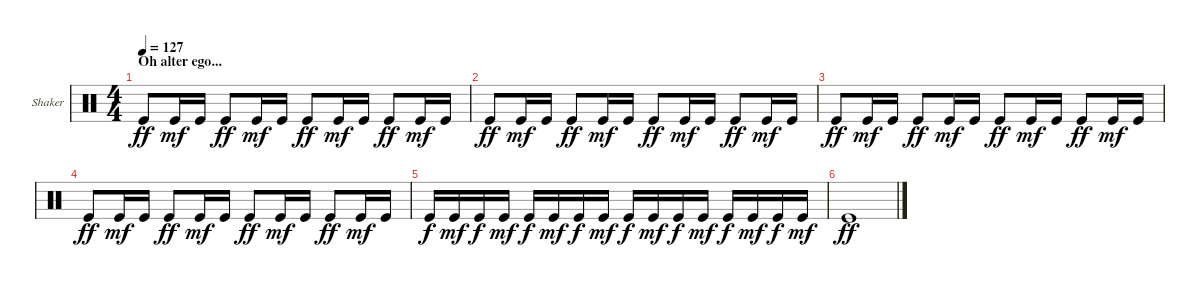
\bracketExtendMode groupsimilarinstruments
\firstSystemTrackNameOrientation horizontal
\otherSystemsTrackNameOrientation horizontal
\track ("Shaker" "Shaker") {instrument percussion}
\staff {score}
\articulation defaults
\ts (4 4)
\section ("" "Oh alter ego...")
\tempo 127
\clef neutral
\ks c "Kick (hit)".8{dy ff} "Kick (hit)".16{dy mf} "Kick (hit)".16 "Kick (hit)".8{dy ff} "Kick (hit)".16{dy mf} "Kick (hit)".16 "Kick (hit)".8{dy ff} "Kick (hit)".16{dy mf} "Kick (hit)".16 "Kick (hit)".8{dy ff} "Kick (hit)".16{dy mf} "Kick (hit)".16
|
"Kick (hit)".8{dy ff} "Kick (hit)".16{dy mf} "Kick (hit)".16 "Kick (hit)".8{dy ff} "Kick (hit)".16{dy mf} "Kick (hit)".16 "Kick (hit)".8{dy ff} "Kick (hit)".16{dy mf} "Kick (hit)".16 "Kick (hit)".8{dy ff} "Kick (hit)".16{dy mf} "Kick (hit)".16 |
"Kick (hit)".8{dy ff} "Kick (hit)".16{dy mf} "Kick (hit)".16 "Kick (hit)".8{dy ff} "Kick (hit)".16{dy mf} "Kick (hit)".16 "Kick (hit)".8{dy ff} "Kick (hit)".16{dy mf} "Kick (hit)".16 "Kick (hit)".8{dy ff} "Kick (hit)".16{dy mf} "Kick (hit)".16 |
"Kick (hit)".8{dy ff} "Kick (hit)".16{dy mf} "Kick (hit)".16 "Kick (hit)".8{dy ff} "Kick (hit)".16{dy mf} "Kick (hit)".16 "Kick (hit)".8{dy ff} "Kick (hit)".16{dy mf} "Kick (hit)".16 "Kick (hit)".8{dy ff} "Kick (hit)".16{dy mf} "Kick (hit)".16 |
"Kick (hit)".16{dy f} "Kick (hit)".16{dy mf} "Kick (hit)".16{dy f} "Kick (hit)".16{dy mf} "Kick (hit)".16{dy f} "Kick (hit)".16{dy mf} "Kick (hit)".16{dy f} "Kick (hit)".16{dy mf} "Kick (hit)".16{dy f} "Kick (hit)".16{dy mf} "Kick (hit)".16{dy f} "Kick (hit)".16{dy mf} "Kick (hit)".16{dy f} "Kick (hit)".16{dy mf} "Kick (hit)".16{dy f} "Kick (hit)".16{dy mf} |
"Kick (hit)".1{dy ff}
